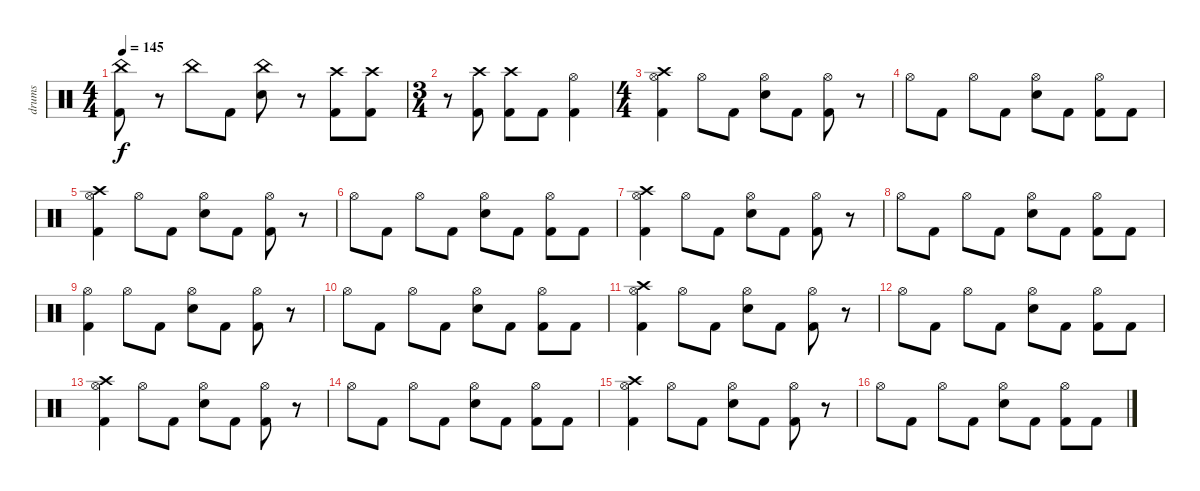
\track ("drums" "drums") {instrument percussion}
\staff {score}
\articulation defaults
\ts (4 4)
\tempo 145
\clef neutral
\ks c
("Kick (hit) 2" "China (hit)").8{dy f} r.8 "China (hit)".8 "Kick (hit) 2".8 ("Snare (hit) 2" "China (hit)").8 r.8 ("Kick (hit) 2" "Crash high (hit)").8 ("Kick (hit) 2" "Crash high (hit)").8 |
\ts (3 4)
r.8 ("Kick (hit) 2" "Crash high (hit)").8 ("Kick (hit) 2" "Crash high (hit)").8 "Kick (hit) 2".8 ("Kick (hit) 2" "Hi-Hat (open)").4 |
\ts (4 4)
("Kick (hit) 2" "Hi-Hat (open)" "Crash high (hit)").4 "Hi-Hat (open)".8 "Kick (hit) 2".8 ("Snare (hit) 2" "Hi-Hat (open)").8 "Kick (hit) 2".8 ("Kick (hit) 2" "Hi-Hat (open)").8 r.8 |
"Hi-Hat (open)".8 "Kick (hit) 2".8 "Hi-Hat (open)".8 "Kick (hit) 2".8 ("Snare (hit) 2" "Hi-Hat (open)").8 "Kick (hit) 2".8 ("Kick (hit) 2" "Hi-Hat (open)").8 "Kick (hit) 2".8 |
("Kick (hit) 2" "Hi-Hat (open)" "Crash high (hit)").4 "Hi-Hat (open)".8 "Kick (hit) 2".8 ("Snare (hit) 2" "Hi-Hat (open)").8 "Kick (hit) 2".8 ("Kick (hit) 2" "Hi-Hat (open)").8 r.8 |
"Hi-Hat (open)".8 "Kick (hit) 2".8 "Hi-Hat (open)".8 "Kick (hit) 2".8 ("Snare (hit) 2" "Hi-Hat (open)").8 "Kick (hit) 2".8 ("Kick (hit) 2" "Hi-Hat (open)").8 "Kick (hit) 2".8 |
("Kick (hit) 2" "Hi-Hat (open)" "Crash high (hit)").4 "Hi-Hat (open)".8 "Kick (hit) 2".8 ("Snare (hit) 2" "Hi-Hat (open)").8 "Kick (hit) 2".8 ("Kick (hit) 2" "Hi-Hat (open)").8 r.8 |
"Hi-Hat (open)".8 "Kick (hit) 2".8 "Hi-Hat (open)".8 "Kick (hit) 2".8 ("Snare (hit) 2" "Hi-Hat (open)").8 "Kick (hit) 2".8 ("Kick (hit) 2" "Hi-Hat (open)").8 "Kick (hit) 2".8 |
("Kick (hit) 2" "Hi-Hat (open)").4 "Hi-Hat (open)".8 "Kick (hit) 2".8 ("Snare (hit) 2" "Hi-Hat (open)").8 "Kick (hit) 2".8 ("Kick (hit) 2" "Hi-Hat (open)").8 r.8 |
"Hi-Hat (open)".8 "Kick (hit) 2".8 "Hi-Hat (open)".8 "Kick (hit) 2".8 ("Snare (hit) 2" "Hi-Hat (open)").8 "Kick (hit) 2".8 ("Kick (hit) 2" "Hi-Hat (open)").8 "Kick (hit) 2".8 |
("Kick (hit) 2" "Hi-Hat (open)" "Crash high (hit)").4 "Hi-Hat (open)".8 "Kick (hit) 2".8 ("Snare (hit) 2" "Hi-Hat (open)").8 "Kick (hit) 2".8 ("Kick (hit) 2" "Hi-Hat (open)").8 r.8 |
"Hi-Hat (open)".8 "Kick (hit) 2".8 "Hi-Hat (open)".8 "Kick (hit) 2".8 ("Snare (hit) 2" "Hi-Hat (open)").8 "Kick (hit) 2".8 ("Kick (hit) 2" "Hi-Hat (open)").8 "Kick (hit) 2".8 |
("Kick (hit) 2" "Hi-Hat (open)" "Crash high (hit)").4 "Hi-Hat (open)".8 "Kick (hit) 2".8 ("Snare (hit) 2" "Hi-Hat (open)").8 "Kick (hit) 2".8 ("Kick (hit) 2" "Hi-Hat (open)").8 r.8 |
"Hi-Hat (open)".8 "Kick (hit) 2".8 "Hi-Hat (open)".8 "Kick (hit) 2".8 ("Snare (hit) 2" "Hi-Hat (open)").8 "Kick (hit) 2".8 ("Kick (hit) 2" "Hi-Hat (open)").8 "Kick (hit) 2".8 |
("Kick (hit) 2" "Hi-Hat (open)" "Crash high (hit)").4 "Hi-Hat (open)".8 "Kick (hit) 2".8 ("Snare (hit) 2" "Hi-Hat (open)").8 "Kick (hit) 2".8 ("Kick (hit) 2" "Hi-Hat (open)").8 r.8 |
"Hi-Hat (open)".8 "Kick (hit) 2".8 "Hi-Hat (open)".8 "Kick (hit) 2".8 ("Snare (hit) 2" "Hi-Hat (open)").8 "Kick (hit) 2".8 ("Kick (hit) 2" "Hi-Hat (open)").8 "Kick (hit) 2".8
